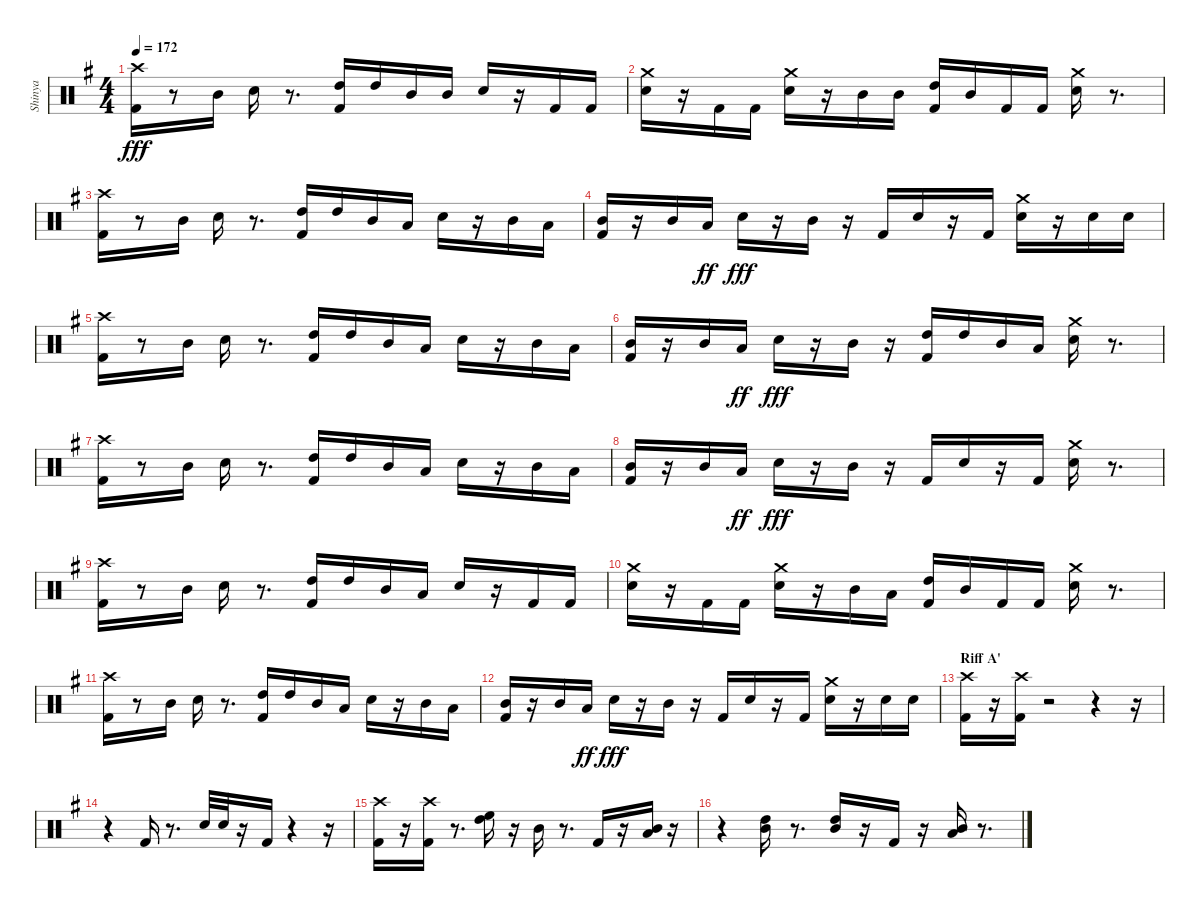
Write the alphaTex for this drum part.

\track ("Shinya" "Shinya") {instrument percussion}
\staff {score}
\articulation defaults
\ts (4 4)
\tempo 172
\clef neutral
\ks eminor
("Kick (hit) 2" "Crash high (hit)").16{dy fff} r.8 "Mid Tom (hit)".16 "Snare (hit) 2".16 r.8{d} ("Kick (hit) 2" "High Tom (hit)").16 "High Tom (hit)".16 "Mid Tom (hit)".16 "Mid Tom (hit)".16 "Snare (hit) 2".16 r.16 "Kick (hit) 2".16 "Kick (hit) 2".16 |
("Snare (hit) 2" "Crash medium (hit)").16 r.16 "Kick (hit) 2".16 "Kick (hit) 2".16 ("Snare (hit) 2" "Crash medium (hit)").16 r.16 "Mid Tom (hit)".16 "Mid Tom (hit)".16 ("Kick (hit) 2" "High Tom (hit)").16 "Mid Tom (hit)".16 "Kick (hit) 2".16 "Kick (hit) 2".16 ("Snare (hit) 2" "Crash medium (hit)").16 r.8{d} |
("Kick (hit) 2" "Crash high (hit)").16 r.8 "Mid Tom (hit)".16 "Snare (hit) 2".16 r.8{d} ("Kick (hit) 2" "High Tom (hit)").16 "High Tom (hit)".16 "Mid Tom (hit)".16 "Low Tom (hit)".16 "Snare (hit) 2".16 r.16 "Mid Tom (hit)".16 "Low Tom (hit)".16 |
("Kick (hit) 2" "Mid Tom (hit)").16 r.16 "Mid Tom (hit)".16 "Low Tom (hit)".16{dy ff} "Snare (hit) 2".16{dy fff} r.16 "Mid Tom (hit)".16 r.16 "Kick (hit) 2".16 "Snare (hit) 2".16 r.16 "Kick (hit) 2".16 ("Snare (hit) 2" "Crash medium (hit)").16 r.16 "Snare (hit) 2".16 "Snare (hit) 2".16 |
("Kick (hit) 2" "Crash high (hit)").16 r.8 "Mid Tom (hit)".16 "Snare (hit) 2".16 r.8{d} ("Kick (hit) 2" "High Tom (hit)").16 "High Tom (hit)".16 "Mid Tom (hit)".16 "Low Tom (hit)".16 "Snare (hit) 2".16 r.16 "Mid Tom (hit)".16 "Low Tom (hit)".16 |
("Kick (hit) 2" "Mid Tom (hit)").16 r.16 "Mid Tom (hit)".16 "Low Tom (hit)".16{dy ff} "Snare (hit) 2".16{dy fff} r.16 "Mid Tom (hit)".16 r.16 ("Kick (hit) 2" "High Tom (hit)").16 "High Tom (hit)".16 "Mid Tom (hit)".16 "Low Tom (hit)".16 ("Snare (hit) 2" "Crash medium (hit)").16 r.8{d} |
("Kick (hit) 2" "Crash high (hit)").16 r.8 "Mid Tom (hit)".16 "Snare (hit) 2".16 r.8{d} ("Kick (hit) 2" "High Tom (hit)").16 "High Tom (hit)".16 "Mid Tom (hit)".16 "Low Tom (hit)".16 "Snare (hit) 2".16 r.16 "Mid Tom (hit)".16 "Low Tom (hit)".16 |
("Kick (hit) 2" "Mid Tom (hit)").16 r.16 "Mid Tom (hit)".16 "Low Tom (hit)".16{dy ff} "Snare (hit) 2".16{dy fff} r.16 "Mid Tom (hit)".16 r.16 "Kick (hit) 2".16 "Snare (hit) 2".16 r.16 "Kick (hit) 2".16 ("Snare (hit) 2" "Crash medium (hit)").16 r.8{d} |
("Kick (hit) 2" "Crash high (hit)").16 r.8 "Mid Tom (hit)".16 "Snare (hit) 2".16 r.8{d} ("Kick (hit) 2" "High Tom (hit)").16 "High Tom (hit)".16 "Mid Tom (hit)".16 "Low Tom (hit)".16 "Snare (hit) 2".16 r.16 "Kick (hit) 2".16 "Kick (hit) 2".16 |
("Snare (hit) 2" "Crash medium (hit)").16 r.16 "Kick (hit) 2".16 "Kick (hit) 2".16 ("Snare (hit) 2" "Crash medium (hit)").16 r.16 "Mid Tom (hit)".16 "Low Tom (hit)".16 ("Kick (hit) 2" "High Tom (hit)").16 "Mid Tom (hit)".16 "Kick (hit) 2".16 "Kick (hit) 2".16 ("Snare (hit) 2" "Crash medium (hit)").16 r.8{d} |
("Kick (hit) 2" "Crash high (hit)").16 r.8 "Mid Tom (hit)".16 "Snare (hit) 2".16 r.8{d} ("Kick (hit) 2" "High Tom (hit)").16 "High Tom (hit)".16 "Mid Tom (hit)".16 "Low Tom (hit)".16 "Snare (hit) 2".16 r.16 "Mid Tom (hit)".16 "Low Tom (hit)".16 |
("Kick (hit) 2" "Mid Tom (hit)").16 r.16 "Mid Tom (hit)".16 "Low Tom (hit)".16{dy ff} "Snare (hit) 2".16{dy fff} r.16 "Mid Tom (hit)".16 r.16 "Kick (hit) 2".16 "Snare (hit) 2".16 r.16 "Kick (hit) 2".16 ("Snare (hit) 2" "Crash medium (hit)").16 r.16 "Snare (hit) 2".16 "Snare (hit) 2".16 |
\section ("" "Riff A'")
("Kick (hit) 2" "Crash high (hit)").16 r.16 ("Kick (hit) 2" "Crash high (hit)").16 r.2 r.4 r.16 |
r.4 "Kick (hit) 2".16 r.8{d} "Snare (hit) 2".32 "Snare (hit) 2".32 r.16 "Kick (hit) 2".16 r.4 r.16 |
("Kick (hit) 2" "Crash high (hit)").16 r.16 ("Kick (hit) 2" "Crash high (hit)").16 r.8{d} ("High Tom (hit)" "High Floor Tom (hit)").16 r.16 "Mid Tom (hit)".16 r.8{d} "Kick (hit) 2".16 r.16 ("Low Tom (hit)" "Mid Tom (hit)").16 r.16 |
r.4 ("Mid Tom (hit)" "High Tom (hit)").16 r.8{d} ("Mid Tom (hit)" "High Tom (hit)").16 r.16 "Kick (hit) 2".16 r.16 ("Low Tom (hit)" "Mid Tom (hit)").16 r.8{d}
